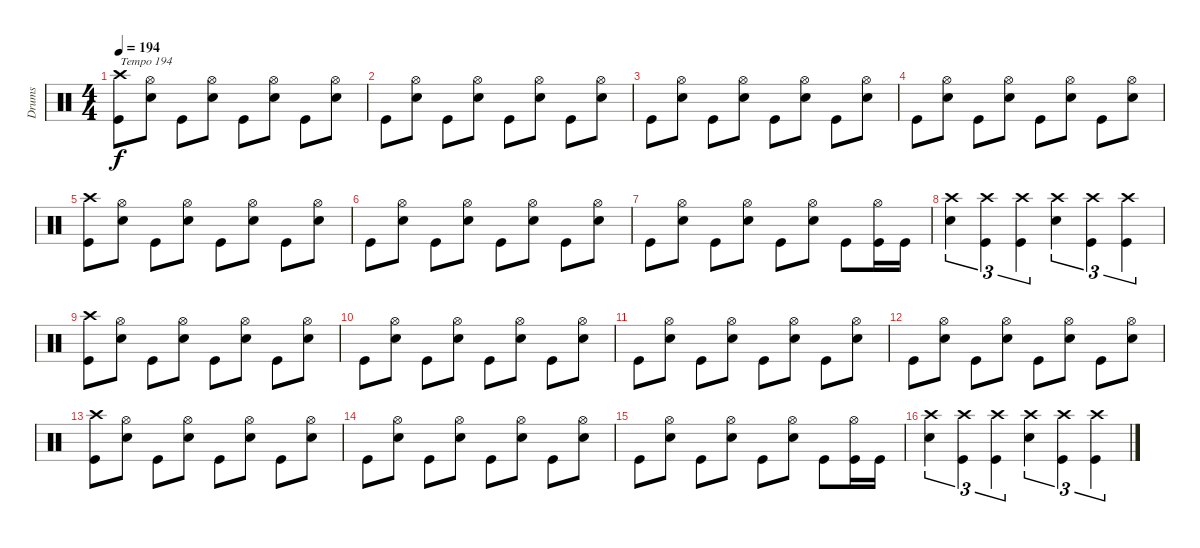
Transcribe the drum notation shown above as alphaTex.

\track ("Drums" "Drums") {instrument percussion}
\staff {score}
\articulation defaults
\ts (4 4)
\tempo 194
\clef neutral
\ks c
("Crash high (hit)" "Kick (hit)").8{txt "Tempo 194" dy f} ("Hi-Hat (open)" "Electric Snare (hit)").8 "Kick (hit)".8 ("Hi-Hat (open)" "Electric Snare (hit)").8 "Kick (hit)".8 ("Hi-Hat (open)" "Electric Snare (hit)").8 "Kick (hit)".8 ("Hi-Hat (open)" "Electric Snare (hit)").8 |
"Kick (hit)".8 ("Hi-Hat (open)" "Electric Snare (hit)").8 "Kick (hit)".8 ("Hi-Hat (open)" "Electric Snare (hit)").8 "Kick (hit)".8 ("Hi-Hat (open)" "Electric Snare (hit)").8 "Kick (hit)".8 ("Hi-Hat (open)" "Electric Snare (hit)").8 |
"Kick (hit)".8 ("Hi-Hat (open)" "Electric Snare (hit)").8 "Kick (hit)".8 ("Hi-Hat (open)" "Electric Snare (hit)").8 "Kick (hit)".8 ("Hi-Hat (open)" "Electric Snare (hit)").8 "Kick (hit)".8 ("Hi-Hat (open)" "Electric Snare (hit)").8 |
"Kick (hit)".8 ("Hi-Hat (open)" "Electric Snare (hit)").8 "Kick (hit)".8 ("Hi-Hat (open)" "Electric Snare (hit)").8 "Kick (hit)".8 ("Hi-Hat (open)" "Electric Snare (hit)").8 "Kick (hit)".8 ("Hi-Hat (open)" "Electric Snare (hit)").8 |
("Crash high (hit)" "Kick (hit)").8 ("Hi-Hat (open)" "Electric Snare (hit)").8 "Kick (hit)".8 ("Hi-Hat (open)" "Electric Snare (hit)").8 "Kick (hit)".8 ("Hi-Hat (open)" "Electric Snare (hit)").8 "Kick (hit)".8 ("Hi-Hat (open)" "Electric Snare (hit)").8 |
"Kick (hit)".8 ("Hi-Hat (open)" "Electric Snare (hit)").8 "Kick (hit)".8 ("Hi-Hat (open)" "Electric Snare (hit)").8 "Kick (hit)".8 ("Hi-Hat (open)" "Electric Snare (hit)").8 "Kick (hit)".8 ("Hi-Hat (open)" "Electric Snare (hit)").8 |
"Kick (hit)".8 ("Hi-Hat (open)" "Electric Snare (hit)").8 "Kick (hit)".8 ("Hi-Hat (open)" "Electric Snare (hit)").8 "Kick (hit)".8 ("Hi-Hat (open)" "Electric Snare (hit)").8 "Kick (hit)".8 ("Hi-Hat (open)" "Kick (hit)").16 "Kick (hit)".16 |
("Crash high (hit)" "Electric Snare (hit)").4{tu (3 2)} ("Crash high (hit)" "Kick (hit)").4{tu (3 2)} ("Crash high (hit)" "Kick (hit)").4{tu (3 2)} ("Crash high (hit)" "Electric Snare (hit)").4{tu (3 2)} ("Crash high (hit)" "Kick (hit)").4{tu (3 2)} ("Crash high (hit)" "Kick (hit)").4{tu (3 2)} |
("Crash high (hit)" "Kick (hit)").8 ("Hi-Hat (open)" "Electric Snare (hit)").8 "Kick (hit)".8 ("Hi-Hat (open)" "Electric Snare (hit)").8 "Kick (hit)".8 ("Hi-Hat (open)" "Electric Snare (hit)").8 "Kick (hit)".8 ("Hi-Hat (open)" "Electric Snare (hit)").8 |
"Kick (hit)".8 ("Hi-Hat (open)" "Electric Snare (hit)").8 "Kick (hit)".8 ("Hi-Hat (open)" "Electric Snare (hit)").8 "Kick (hit)".8 ("Hi-Hat (open)" "Electric Snare (hit)").8 "Kick (hit)".8 ("Hi-Hat (open)" "Electric Snare (hit)").8 |
"Kick (hit)".8 ("Hi-Hat (open)" "Electric Snare (hit)").8 "Kick (hit)".8 ("Hi-Hat (open)" "Electric Snare (hit)").8 "Kick (hit)".8 ("Hi-Hat (open)" "Electric Snare (hit)").8 "Kick (hit)".8 ("Hi-Hat (open)" "Electric Snare (hit)").8 |
"Kick (hit)".8 ("Hi-Hat (open)" "Electric Snare (hit)").8 "Kick (hit)".8 ("Hi-Hat (open)" "Electric Snare (hit)").8 "Kick (hit)".8 ("Hi-Hat (open)" "Electric Snare (hit)").8 "Kick (hit)".8 ("Hi-Hat (open)" "Electric Snare (hit)").8 |
("Crash high (hit)" "Kick (hit)").8 ("Hi-Hat (open)" "Electric Snare (hit)").8 "Kick (hit)".8 ("Hi-Hat (open)" "Electric Snare (hit)").8 "Kick (hit)".8 ("Hi-Hat (open)" "Electric Snare (hit)").8 "Kick (hit)".8 ("Hi-Hat (open)" "Electric Snare (hit)").8 |
"Kick (hit)".8 ("Hi-Hat (open)" "Electric Snare (hit)").8 "Kick (hit)".8 ("Hi-Hat (open)" "Electric Snare (hit)").8 "Kick (hit)".8 ("Hi-Hat (open)" "Electric Snare (hit)").8 "Kick (hit)".8 ("Hi-Hat (open)" "Electric Snare (hit)").8 |
"Kick (hit)".8 ("Hi-Hat (open)" "Electric Snare (hit)").8 "Kick (hit)".8 ("Hi-Hat (open)" "Electric Snare (hit)").8 "Kick (hit)".8 ("Hi-Hat (open)" "Electric Snare (hit)").8 "Kick (hit)".8 ("Hi-Hat (open)" "Kick (hit)").16 "Kick (hit)".16 |
("Crash high (hit)" "Electric Snare (hit)").4{tu (3 2)} ("Crash high (hit)" "Kick (hit)").4{tu (3 2)} ("Crash high (hit)" "Kick (hit)").4{tu (3 2)} ("Crash high (hit)" "Electric Snare (hit)").4{tu (3 2)} ("Crash high (hit)" "Kick (hit)").4{tu (3 2)} ("Crash high (hit)" "Kick (hit)").4{tu (3 2)}
